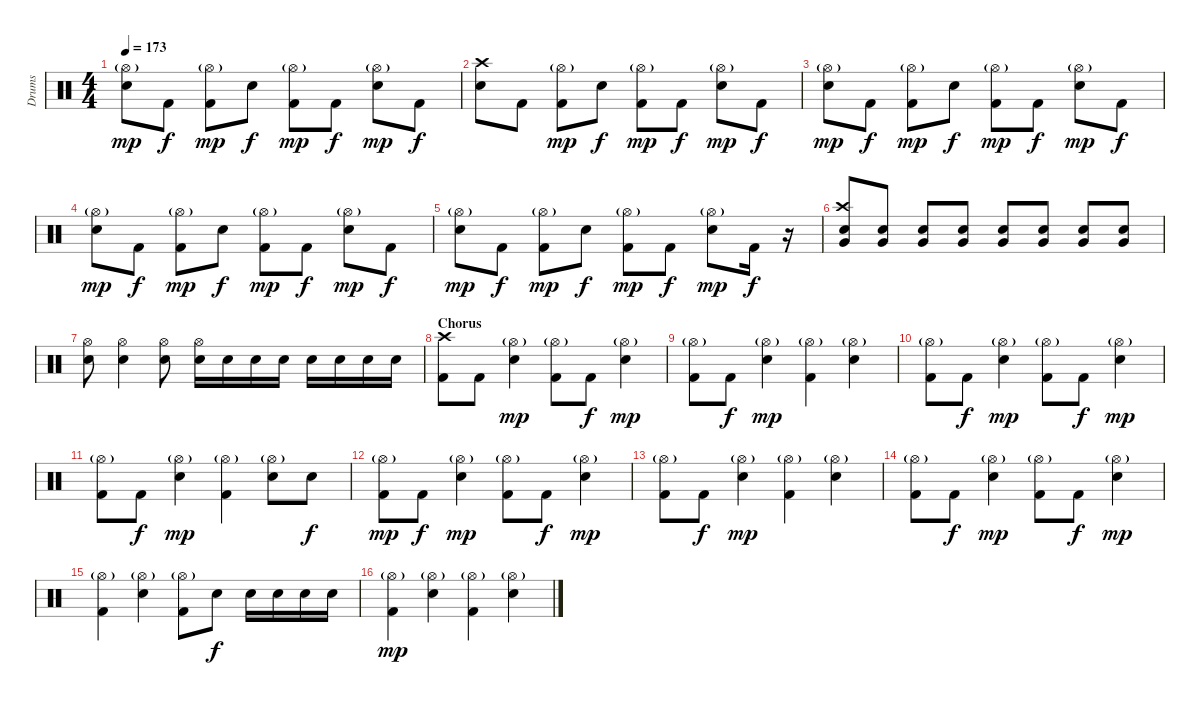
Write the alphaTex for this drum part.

\track ("Drums" "Drums") {instrument percussion}
\staff {score}
\articulation defaults
\ts (4 4)
\tempo 173
\clef neutral
\ks c
("Hi-Hat (open)"{g} "Snare (hit) 2").8{dy mp} "Kick (hit) 2".8{dy f} ("Hi-Hat (open)"{g} "Kick (hit) 2").8{dy mp} "Snare (hit) 2".8{dy f} ("Hi-Hat (open)"{g} "Kick (hit) 2").8{dy mp} "Kick (hit) 2".8{dy f} ("Hi-Hat (open)"{g} "Snare (hit) 2").8{dy mp} "Kick (hit) 2".8{dy f} |
("Crash high (hit)" "Snare (hit) 2").8 "Kick (hit) 2".8 ("Hi-Hat (open)"{g} "Kick (hit) 2").8{dy mp} "Snare (hit) 2".8{dy f} ("Hi-Hat (open)"{g} "Kick (hit) 2").8{dy mp} "Kick (hit) 2".8{dy f} ("Hi-Hat (open)"{g} "Snare (hit) 2").8{dy mp} "Kick (hit) 2".8{dy f} |
("Hi-Hat (open)"{g} "Snare (hit) 2").8{dy mp} "Kick (hit) 2".8{dy f} ("Hi-Hat (open)"{g} "Kick (hit) 2").8{dy mp} "Snare (hit) 2".8{dy f} ("Hi-Hat (open)"{g} "Kick (hit) 2").8{dy mp} "Kick (hit) 2".8{dy f} ("Hi-Hat (open)"{g} "Snare (hit) 2").8{dy mp} "Kick (hit) 2".8{dy f} |
("Hi-Hat (open)"{g} "Snare (hit) 2").8{dy mp} "Kick (hit) 2".8{dy f} ("Hi-Hat (open)"{g} "Kick (hit) 2").8{dy mp} "Snare (hit) 2".8{dy f} ("Hi-Hat (open)"{g} "Kick (hit) 2").8{dy mp} "Kick (hit) 2".8{dy f} ("Hi-Hat (open)"{g} "Snare (hit) 2").8{dy mp} "Kick (hit) 2".8{dy f} |
("Hi-Hat (open)"{g} "Snare (hit) 2").8{dy mp} "Kick (hit) 2".8{dy f} ("Hi-Hat (open)"{g} "Kick (hit) 2").8{dy mp} "Snare (hit) 2".8{dy f} ("Hi-Hat (open)"{g} "Kick (hit) 2").8{dy mp} "Kick (hit) 2".8{dy f} ("Hi-Hat (open)"{g} "Snare (hit) 2").8{dy mp} "Kick (hit) 2".16{dy f} r.16{volume 4} |
("Crash high (hit)" "Very Low Tom (hit)" "Snare (hit) 2").8{volume 10} ("Very Low Tom (hit)" "Snare (hit) 2").8 ("Very Low Tom (hit)" "Snare (hit) 2").8 ("Very Low Tom (hit)" "Snare (hit) 2").8 ("Very Low Tom (hit)" "Snare (hit) 2").8 ("Very Low Tom (hit)" "Snare (hit) 2").8 ("Very Low Tom (hit)" "Snare (hit) 2").8 ("Very Low Tom (hit)" "Snare (hit) 2").8 |
("Hi-Hat (open)" "Snare (hit) 2").8 ("Hi-Hat (open)" "Snare (hit) 2").4 ("Hi-Hat (open)" "Snare (hit) 2").8 ("Hi-Hat (open)" "Snare (hit) 2").16 "Snare (hit) 2".16 "Snare (hit) 2".16 "Snare (hit) 2".16 "Snare (hit) 2".16 "Snare (hit) 2".16 "Snare (hit) 2".16 "Snare (hit) 2".16 |
\section ("" "Chorus")
("Crash high (hit)" "Kick (hit) 2").8 "Kick (hit) 2".8 ("Hi-Hat (open)"{g} "Snare (hit) 2").4{dy mp} ("Hi-Hat (open)"{g} "Kick (hit) 2").8 "Kick (hit) 2".8{dy f} ("Hi-Hat (open)"{g} "Snare (hit) 2").4{dy mp} |
("Hi-Hat (open)"{g} "Kick (hit) 2").8 "Kick (hit) 2".8{dy f} ("Hi-Hat (open)"{g} "Snare (hit) 2").4{dy mp} ("Hi-Hat (open)"{g} "Kick (hit) 2").4 ("Hi-Hat (open)"{g} "Snare (hit) 2").4 |
("Hi-Hat (open)"{g} "Kick (hit) 2").8 "Kick (hit) 2".8{dy f} ("Hi-Hat (open)"{g} "Snare (hit) 2").4{dy mp} ("Hi-Hat (open)"{g} "Kick (hit) 2").8 "Kick (hit) 2".8{dy f} ("Hi-Hat (open)"{g} "Snare (hit) 2").4{dy mp} |
("Hi-Hat (open)"{g} "Kick (hit) 2").8 "Kick (hit) 2".8{dy f} ("Hi-Hat (open)"{g} "Snare (hit) 2").4{dy mp} ("Hi-Hat (open)"{g} "Kick (hit) 2").4 ("Hi-Hat (open)"{g} "Snare (hit) 2").8 "Snare (hit) 2".8{dy f} |
("Hi-Hat (open)"{g} "Kick (hit) 2").8{dy mp} "Kick (hit) 2".8{dy f} ("Hi-Hat (open)"{g} "Snare (hit) 2").4{dy mp} ("Hi-Hat (open)"{g} "Kick (hit) 2").8 "Kick (hit) 2".8{dy f} ("Hi-Hat (open)"{g} "Snare (hit) 2").4{dy mp} |
("Hi-Hat (open)"{g} "Kick (hit) 2").8 "Kick (hit) 2".8{dy f} ("Hi-Hat (open)"{g} "Snare (hit) 2").4{dy mp} ("Hi-Hat (open)"{g} "Kick (hit) 2").4 ("Hi-Hat (open)"{g} "Snare (hit) 2").4 |
("Hi-Hat (open)"{g} "Kick (hit) 2").8 "Kick (hit) 2".8{dy f} ("Hi-Hat (open)"{g} "Snare (hit) 2").4{dy mp} ("Hi-Hat (open)"{g} "Kick (hit) 2").8 "Kick (hit) 2".8{dy f} ("Hi-Hat (open)"{g} "Snare (hit) 2").4{dy mp} |
("Hi-Hat (open)"{g} "Kick (hit) 2").4 ("Hi-Hat (open)"{g} "Snare (hit) 2").4 ("Hi-Hat (open)"{g} "Kick (hit) 2").8 "Snare (hit) 2".8{dy f} "Snare (hit) 2".16 "Snare (hit) 2".16 "Snare (hit) 2".16 "Snare (hit) 2".16 |
("Hi-Hat (open)"{g} "Kick (hit) 2").4{dy mp} ("Hi-Hat (open)"{g} "Snare (hit) 2").4 ("Hi-Hat (open)"{g} "Kick (hit) 2").4 ("Hi-Hat (open)"{g} "Snare (hit) 2").4
